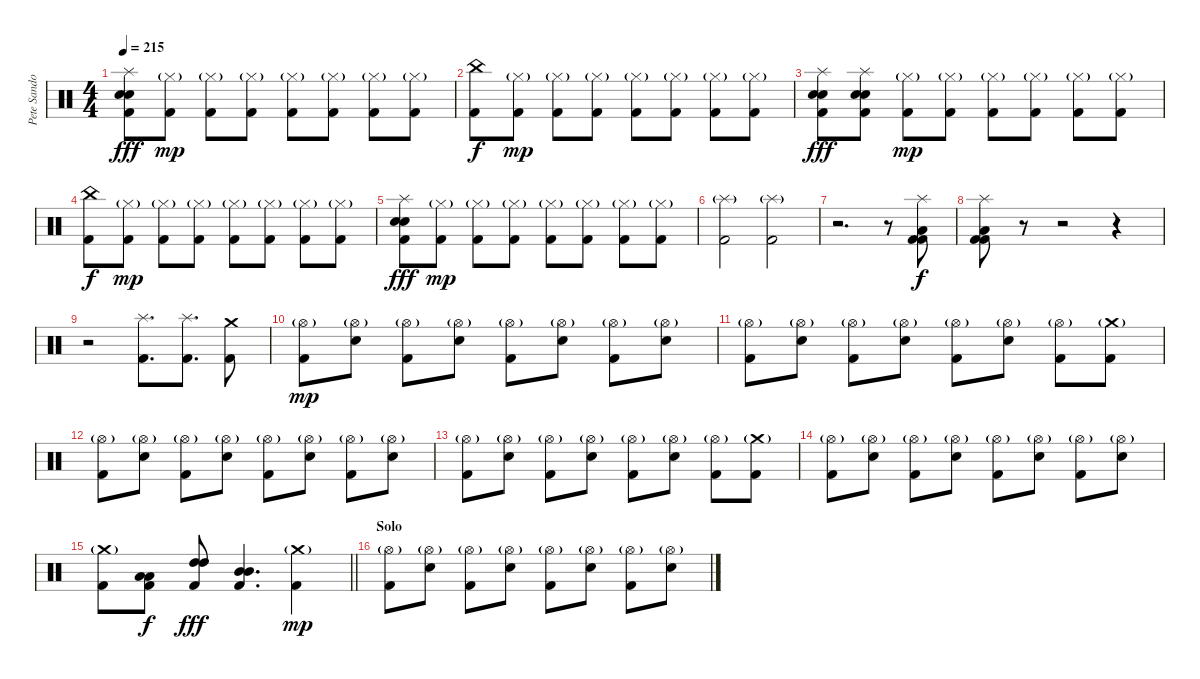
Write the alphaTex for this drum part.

\track ("Pete Sandoval" "Pete Sando") {instrument percussion}
\staff {score}
\articulation defaults
\ts (4 4)
\tempo 215
\clef neutral
\ks c
("Splash (hit)" "Snare (hit) 2" "Snare (hit) 2" "Kick (hit) 2").8{dy fff} ("Hi-Hat (closed)"{g} "Kick (hit) 2").8{dy mp} ("Hi-Hat (closed)"{g} "Kick (hit) 2").8 ("Hi-Hat (closed)"{g} "Kick (hit) 2").8 ("Hi-Hat (closed)"{g} "Kick (hit) 2").8 ("Hi-Hat (closed)"{g} "Kick (hit) 2").8 ("Hi-Hat (closed)"{g} "Kick (hit) 2").8 ("Hi-Hat (closed)"{g} "Kick (hit) 2").8 |
("China (hit)" "Kick (hit) 2").8{dy f} ("Hi-Hat (closed)"{g} "Kick (hit) 2").8{dy mp} ("Hi-Hat (closed)"{g} "Kick (hit) 2").8 ("Hi-Hat (closed)"{g} "Kick (hit) 2").8 ("Hi-Hat (closed)"{g} "Kick (hit) 2").8 ("Hi-Hat (closed)"{g} "Kick (hit) 2").8 ("Hi-Hat (closed)"{g} "Kick (hit) 2").8 ("Hi-Hat (closed)"{g} "Kick (hit) 2").8 |
("Splash (hit)" "Snare (hit) 2" "Snare (hit) 2" "Kick (hit) 2").8{dy fff} ("Splash (hit)" "Snare (hit) 2" "Snare (hit) 2" "Kick (hit) 2").8 ("Hi-Hat (closed)"{g} "Kick (hit) 2").8{dy mp} ("Hi-Hat (closed)"{g} "Kick (hit) 2").8 ("Hi-Hat (closed)"{g} "Kick (hit) 2").8 ("Hi-Hat (closed)"{g} "Kick (hit) 2").8 ("Hi-Hat (closed)"{g} "Kick (hit) 2").8 ("Hi-Hat (closed)"{g} "Kick (hit) 2").8 |
("China (hit)" "Kick (hit) 2").8{dy f} ("Hi-Hat (closed)"{g} "Kick (hit) 2").8{dy mp} ("Hi-Hat (closed)"{g} "Kick (hit) 2").8 ("Hi-Hat (closed)"{g} "Kick (hit) 2").8 ("Hi-Hat (closed)"{g} "Kick (hit) 2").8 ("Hi-Hat (closed)"{g} "Kick (hit) 2").8 ("Hi-Hat (closed)"{g} "Kick (hit) 2").8 ("Hi-Hat (closed)"{g} "Kick (hit) 2").8 |
("Splash (hit)" "Snare (hit) 2" "Snare (hit) 2" "Kick (hit) 2").8{dy fff} ("Hi-Hat (closed)"{g} "Kick (hit) 2").8{dy mp} ("Hi-Hat (closed)"{g} "Kick (hit) 2").8 ("Hi-Hat (closed)"{g} "Kick (hit) 2").8 ("Hi-Hat (closed)"{g} "Kick (hit) 2").8 ("Hi-Hat (closed)"{g} "Kick (hit) 2").8 ("Hi-Hat (closed)"{g} "Kick (hit) 2").8 ("Hi-Hat (closed)"{g} "Kick (hit) 2").8 |
("Splash (hit)"{g} "Kick (hit) 2").2 ("Splash (hit)"{g} "Kick (hit) 2").2 |
r.2{d} r.8 ("Splash (hit)" "Low Floor Tom (hit)" "Kick (hit) 2" "Kick (hit) 2").8{dy f} |
("Splash (hit)" "Low Floor Tom (hit)" "Kick (hit) 2" "Kick (hit) 2").8 r.8 r.2 r.4 |
r.2 ("Splash (hit)" "Kick (hit) 2").8{d} ("Splash (hit)" "Kick (hit) 2").8{d} ("Crash medium (hit)" "Kick (hit) 2").8 |
("Hi-Hat (open)"{g} "Kick (hit) 2").8{dy mp} ("Hi-Hat (open)"{g} "Snare (hit) 2").8 ("Hi-Hat (open)"{g} "Kick (hit) 2").8 ("Hi-Hat (open)"{g} "Snare (hit) 2").8 ("Hi-Hat (open)"{g} "Kick (hit) 2").8 ("Hi-Hat (open)"{g} "Snare (hit) 2").8 ("Hi-Hat (open)"{g} "Kick (hit) 2").8 ("Hi-Hat (open)"{g} "Snare (hit) 2").8 |
("Hi-Hat (open)"{g} "Kick (hit) 2").8 ("Hi-Hat (open)"{g} "Snare (hit) 2").8 ("Hi-Hat (open)"{g} "Kick (hit) 2").8 ("Hi-Hat (open)"{g} "Snare (hit) 2").8 ("Hi-Hat (open)"{g} "Kick (hit) 2").8 ("Hi-Hat (open)"{g} "Snare (hit) 2").8 ("Hi-Hat (open)"{g} "Kick (hit) 2").8 ("Crash medium (hit)"{g} "Kick (hit) 2").8 |
("Hi-Hat (open)"{g} "Kick (hit) 2").8 ("Hi-Hat (open)"{g} "Snare (hit) 2").8 ("Hi-Hat (open)"{g} "Kick (hit) 2").8 ("Hi-Hat (open)"{g} "Snare (hit) 2").8 ("Hi-Hat (open)"{g} "Kick (hit) 2").8 ("Hi-Hat (open)"{g} "Snare (hit) 2").8 ("Hi-Hat (open)"{g} "Kick (hit) 2").8 ("Hi-Hat (open)"{g} "Snare (hit) 2").8 |
("Hi-Hat (open)"{g} "Kick (hit) 2").8 ("Hi-Hat (open)"{g} "Snare (hit) 2").8 ("Hi-Hat (open)"{g} "Kick (hit) 2").8 ("Hi-Hat (open)"{g} "Snare (hit) 2").8 ("Hi-Hat (open)"{g} "Kick (hit) 2").8 ("Hi-Hat (open)"{g} "Snare (hit) 2").8 ("Hi-Hat (open)"{g} "Kick (hit) 2").8 ("Crash medium (hit)"{g} "Kick (hit) 2").8 |
("Hi-Hat (open)"{g} "Kick (hit) 2").8 ("Hi-Hat (open)"{g} "Snare (hit) 2").8 ("Hi-Hat (open)"{g} "Kick (hit) 2").8 ("Hi-Hat (open)"{g} "Snare (hit) 2").8 ("Hi-Hat (open)"{g} "Kick (hit) 2").8 ("Hi-Hat (open)"{g} "Snare (hit) 2").8 ("Hi-Hat (open)"{g} "Kick (hit) 2").8 ("Hi-Hat (open)"{g} "Snare (hit) 2").8 |
\barLineRight lightlight
("Crash medium (hit)"{g} "Kick (hit) 2").8 ("Low Floor Tom (hit)" "Low Floor Tom (hit)" "Kick (hit) 2").8{dy f} ("High Tom (hit)" "High Tom (hit)" "Kick (hit) 2").8{dy fff} ("Mid Tom (hit)" "Mid Tom (hit)" "Kick (hit) 2").4{d} ("Crash medium (hit)"{g} "Kick (hit) 2").4{dy mp} |
\section ("" "Solo")
("Hi-Hat (open)"{g} "Kick (hit) 2").8 ("Hi-Hat (open)"{g} "Snare (hit) 2").8 ("Hi-Hat (open)"{g} "Kick (hit) 2").8 ("Hi-Hat (open)"{g} "Snare (hit) 2").8 ("Hi-Hat (open)"{g} "Kick (hit) 2").8 ("Hi-Hat (open)"{g} "Snare (hit) 2").8 ("Hi-Hat (open)"{g} "Kick (hit) 2").8 ("Hi-Hat (open)"{g} "Snare (hit) 2").8
